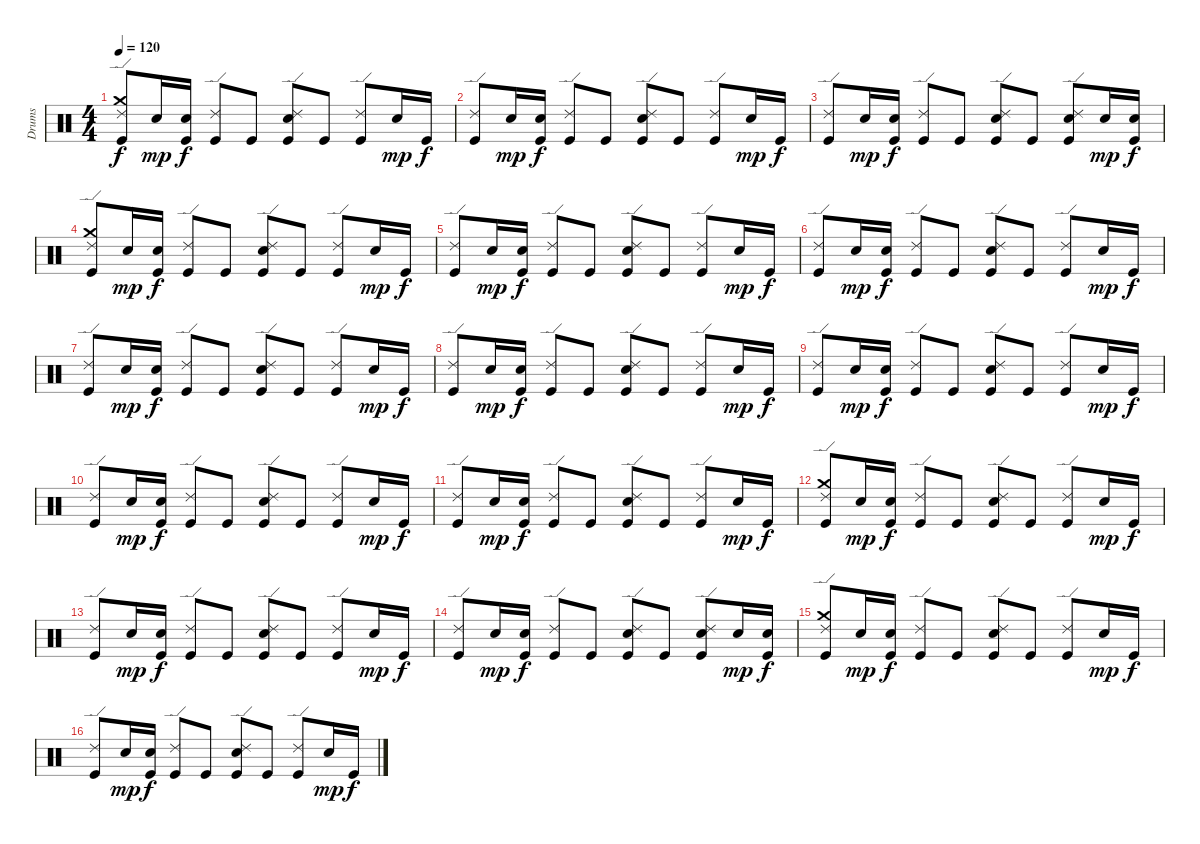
\track ("Drums" "Drums") {instrument percussion}
\staff {score}
\articulation defaults
\ts (4 4)
\tempo 120
\clef neutral
\ks c
("Kick (hit)" "Crash medium (hit)" "Ride (edge) 2").8{dy f} "Electric Snare (hit)".16{dy mp} ("Kick (hit)" "Electric Snare (hit)").16{dy f} ("Kick (hit)" "Ride (edge) 2").8 "Kick (hit)".8 ("Kick (hit)" "Electric Snare (hit)" "Ride (edge) 2").8 "Kick (hit)".8 ("Kick (hit)" "Ride (edge) 2").8 "Electric Snare (hit)".16{dy mp} "Kick (hit)".16{dy f} |
("Kick (hit)" "Ride (edge) 2").8 "Electric Snare (hit)".16{dy mp} ("Kick (hit)" "Electric Snare (hit)").16{dy f} ("Kick (hit)" "Ride (edge) 2").8 "Kick (hit)".8 ("Kick (hit)" "Electric Snare (hit)" "Ride (edge) 2").8 "Kick (hit)".8 ("Kick (hit)" "Ride (edge) 2").8 "Electric Snare (hit)".16{dy mp} "Kick (hit)".16{dy f} |
("Kick (hit)" "Ride (edge) 2").8 "Electric Snare (hit)".16{dy mp} ("Kick (hit)" "Electric Snare (hit)").16{dy f} ("Kick (hit)" "Ride (edge) 2").8 "Kick (hit)".8 ("Kick (hit)" "Electric Snare (hit)" "Ride (edge) 2").8 "Kick (hit)".8 ("Kick (hit)" "Electric Snare (hit)" "Ride (edge) 2").8 "Electric Snare (hit)".16{dy mp} ("Kick (hit)" "Electric Snare (hit)").16{dy f} |
("Kick (hit)" "Crash medium (hit)" "Ride (edge) 2").8 "Electric Snare (hit)".16{dy mp} ("Kick (hit)" "Electric Snare (hit)").16{dy f} ("Kick (hit)" "Ride (edge) 2").8 "Kick (hit)".8 ("Kick (hit)" "Electric Snare (hit)" "Ride (edge) 2").8 "Kick (hit)".8 ("Kick (hit)" "Ride (edge) 2").8 "Electric Snare (hit)".16{dy mp} "Kick (hit)".16{dy f} |
("Kick (hit)" "Ride (edge) 2").8 "Electric Snare (hit)".16{dy mp} ("Kick (hit)" "Electric Snare (hit)").16{dy f} ("Kick (hit)" "Ride (edge) 2").8 "Kick (hit)".8 ("Kick (hit)" "Electric Snare (hit)" "Ride (edge) 2").8 "Kick (hit)".8 ("Kick (hit)" "Ride (edge) 2").8 "Electric Snare (hit)".16{dy mp} "Kick (hit)".16{dy f} |
("Kick (hit)" "Ride (edge) 2").8 "Electric Snare (hit)".16{dy mp} ("Kick (hit)" "Electric Snare (hit)").16{dy f} ("Kick (hit)" "Ride (edge) 2").8 "Kick (hit)".8 ("Kick (hit)" "Electric Snare (hit)" "Ride (edge) 2").8 "Kick (hit)".8 ("Kick (hit)" "Ride (edge) 2").8 "Electric Snare (hit)".16{dy mp} "Kick (hit)".16{dy f} |
("Kick (hit)" "Ride (edge) 2").8 "Electric Snare (hit)".16{dy mp} ("Kick (hit)" "Electric Snare (hit)").16{dy f} ("Kick (hit)" "Ride (edge) 2").8 "Kick (hit)".8 ("Kick (hit)" "Electric Snare (hit)" "Ride (edge) 2").8 "Kick (hit)".8 ("Kick (hit)" "Ride (edge) 2").8 "Electric Snare (hit)".16{dy mp} "Kick (hit)".16{dy f} |
("Kick (hit)" "Ride (edge) 2").8 "Electric Snare (hit)".16{dy mp} ("Kick (hit)" "Electric Snare (hit)").16{dy f} ("Kick (hit)" "Ride (edge) 2").8 "Kick (hit)".8 ("Kick (hit)" "Electric Snare (hit)" "Ride (edge) 2").8 "Kick (hit)".8 ("Kick (hit)" "Ride (edge) 2").8 "Electric Snare (hit)".16{dy mp} "Kick (hit)".16{dy f} |
("Kick (hit)" "Ride (edge) 2").8 "Electric Snare (hit)".16{dy mp} ("Kick (hit)" "Electric Snare (hit)").16{dy f} ("Kick (hit)" "Ride (edge) 2").8 "Kick (hit)".8 ("Kick (hit)" "Electric Snare (hit)" "Ride (edge) 2").8 "Kick (hit)".8 ("Kick (hit)" "Ride (edge) 2").8 "Electric Snare (hit)".16{dy mp} "Kick (hit)".16{dy f} |
("Kick (hit)" "Ride (edge) 2").8 "Electric Snare (hit)".16{dy mp} ("Kick (hit)" "Electric Snare (hit)").16{dy f} ("Kick (hit)" "Ride (edge) 2").8 "Kick (hit)".8 ("Kick (hit)" "Electric Snare (hit)" "Ride (edge) 2").8 "Kick (hit)".8 ("Kick (hit)" "Ride (edge) 2").8 "Electric Snare (hit)".16{dy mp} "Kick (hit)".16{dy f} |
("Kick (hit)" "Ride (edge) 2").8 "Electric Snare (hit)".16{dy mp} ("Kick (hit)" "Electric Snare (hit)").16{dy f} ("Kick (hit)" "Ride (edge) 2").8 "Kick (hit)".8 ("Kick (hit)" "Electric Snare (hit)" "Ride (edge) 2").8 "Kick (hit)".8 ("Kick (hit)" "Ride (edge) 2").8 "Electric Snare (hit)".16{dy mp} "Kick (hit)".16{dy f} |
("Kick (hit)" "Crash medium (hit)" "Ride (edge) 2").8 "Electric Snare (hit)".16{dy mp} ("Kick (hit)" "Electric Snare (hit)").16{dy f} ("Kick (hit)" "Ride (edge) 2").8 "Kick (hit)".8 ("Kick (hit)" "Electric Snare (hit)" "Ride (edge) 2").8 "Kick (hit)".8 ("Kick (hit)" "Ride (edge) 2").8 "Electric Snare (hit)".16{dy mp} "Kick (hit)".16{dy f} |
("Kick (hit)" "Ride (edge) 2").8 "Electric Snare (hit)".16{dy mp} ("Kick (hit)" "Electric Snare (hit)").16{dy f} ("Kick (hit)" "Ride (edge) 2").8 "Kick (hit)".8 ("Kick (hit)" "Electric Snare (hit)" "Ride (edge) 2").8 "Kick (hit)".8 ("Kick (hit)" "Ride (edge) 2").8 "Electric Snare (hit)".16{dy mp} "Kick (hit)".16{dy f} |
("Kick (hit)" "Ride (edge) 2").8 "Electric Snare (hit)".16{dy mp} ("Kick (hit)" "Electric Snare (hit)").16{dy f} ("Kick (hit)" "Ride (edge) 2").8 "Kick (hit)".8 ("Kick (hit)" "Electric Snare (hit)" "Ride (edge) 2").8 "Kick (hit)".8 ("Kick (hit)" "Electric Snare (hit)" "Ride (edge) 2").8 "Electric Snare (hit)".16{dy mp} ("Kick (hit)" "Electric Snare (hit)").16{dy f} |
("Kick (hit)" "Crash medium (hit)" "Ride (edge) 2").8 "Electric Snare (hit)".16{dy mp} ("Kick (hit)" "Electric Snare (hit)").16{dy f} ("Kick (hit)" "Ride (edge) 2").8 "Kick (hit)".8 ("Kick (hit)" "Electric Snare (hit)" "Ride (edge) 2").8 "Kick (hit)".8 ("Kick (hit)" "Ride (edge) 2").8 "Electric Snare (hit)".16{dy mp} "Kick (hit)".16{dy f} |
("Kick (hit)" "Ride (edge) 2").8 "Electric Snare (hit)".16{dy mp} ("Kick (hit)" "Electric Snare (hit)").16{dy f} ("Kick (hit)" "Ride (edge) 2").8 "Kick (hit)".8 ("Kick (hit)" "Electric Snare (hit)" "Ride (edge) 2").8 "Kick (hit)".8 ("Kick (hit)" "Ride (edge) 2").8 "Electric Snare (hit)".16{dy mp} "Kick (hit)".16{dy f}
